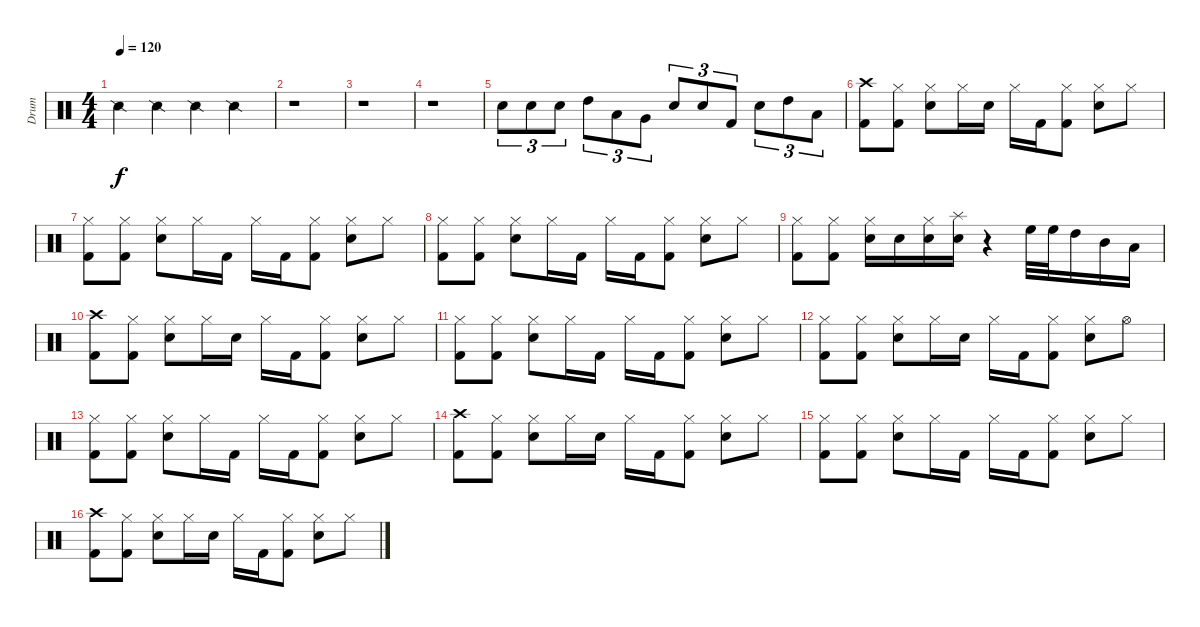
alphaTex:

\track ("Drum" "Drum") {instrument percussion}
\staff {score}
\articulation defaults
\ts (4 4)
\tempo 120
\clef neutral
\ks c "Snare (side stick) 2".4{dy f} "Snare (side stick) 2".4 "Snare (side stick) 2".4 "Snare (side stick) 2".4
|
r.1 |
r.1 |
r.1 |
"Electric Snare (hit)".8{tu (3 2)} "Electric Snare (hit)".8{tu (3 2)} "Electric Snare (hit)".8{tu (3 2)} "High Tom (hit)".8{tu (3 2)} "Low Tom (hit)".8{tu (3 2)} "Very Low Tom (hit)".8{tu (3 2)} "Electric Snare (hit)".8{tu (3 2)} "Electric Snare (hit)".8{tu (3 2)} "Kick (hit) 2".8{tu (3 2)} "Electric Snare (hit)".8{tu (3 2)} "High Tom (hit)".8{tu (3 2)} "Low Tom (hit)".8{tu (3 2)} |
("Crash high (hit)" "Kick (hit) 2").8 ("Hi-Hat (closed)" "Kick (hit) 2").8 ("Hi-Hat (closed)" "Metronome (bell)").8 "Hi-Hat (closed)".16 "Metronome (bell)".16 "Hi-Hat (closed)".16 "Kick (hit) 2".16 ("Hi-Hat (closed)" "Kick (hit) 2").8 ("Hi-Hat (closed)" "Metronome (bell)").8 "Hi-Hat (closed)".8 |
("Hi-Hat (closed)" "Kick (hit) 2").8 ("Hi-Hat (closed)" "Kick (hit) 2").8 ("Hi-Hat (closed)" "Metronome (bell)").8 "Hi-Hat (closed)".16 "Kick (hit) 2".16 "Hi-Hat (closed)".16 "Kick (hit) 2".16 ("Hi-Hat (closed)" "Kick (hit) 2").8 ("Hi-Hat (closed)" "Metronome (bell)").8 "Hi-Hat (closed)".8 |
("Hi-Hat (closed)" "Kick (hit) 2").8 ("Hi-Hat (closed)" "Kick (hit) 2").8 ("Hi-Hat (closed)" "Metronome (bell)").8 "Hi-Hat (closed)".16 "Kick (hit) 2".16 "Hi-Hat (closed)".16 "Kick (hit) 2".16 ("Hi-Hat (closed)" "Kick (hit) 2").8 ("Hi-Hat (closed)" "Metronome (bell)").8 "Hi-Hat (closed)".8 |
("Hi-Hat (closed)" "Kick (hit) 2").8 ("Hi-Hat (closed)" "Kick (hit) 2").8 ("Hi-Hat (closed)" "Metronome (bell)").16 "Metronome (bell)".16 ("Hi-Hat (closed)" "Metronome (bell)").16 ("Splash (hit)" "Metronome (bell)").16 r.4 "High Floor Tom (hit)".32 "High Floor Tom (hit)".32 "High Tom (hit)".16 "Mid Tom (hit)".16 "Low Tom (hit)".16 |
("Crash high (hit)" "Kick (hit) 2").8 ("Hi-Hat (closed)" "Kick (hit) 2").8 ("Hi-Hat (closed)" "Metronome (bell)").8 "Hi-Hat (closed)".16 "Metronome (bell)".16 "Hi-Hat (closed)".16 "Kick (hit) 2".16 ("Hi-Hat (closed)" "Kick (hit) 2").8 ("Hi-Hat (closed)" "Metronome (bell)").8 "Hi-Hat (closed)".8 |
("Hi-Hat (closed)" "Kick (hit) 2").8 ("Hi-Hat (closed)" "Kick (hit) 2").8 ("Hi-Hat (closed)" "Metronome (bell)").8 "Hi-Hat (closed)".16 "Kick (hit) 2".16 "Hi-Hat (closed)".16 "Kick (hit) 2".16 ("Hi-Hat (closed)" "Kick (hit) 2").8 ("Hi-Hat (closed)" "Metronome (bell)").8 "Hi-Hat (closed)".8 |
("Hi-Hat (closed)" "Kick (hit) 2").8 ("Hi-Hat (closed)" "Kick (hit) 2").8 ("Hi-Hat (closed)" "Metronome (bell)").8 "Hi-Hat (closed)".16 "Metronome (bell)".16 "Hi-Hat (closed)".16 "Kick (hit) 2".16 ("Hi-Hat (closed)" "Kick (hit) 2").8 ("Hi-Hat (closed)" "Metronome (bell)").8 "Hi-Hat (open)".8 |
("Hi-Hat (closed)" "Kick (hit) 2").8 ("Hi-Hat (closed)" "Kick (hit) 2").8 ("Hi-Hat (closed)" "Metronome (bell)").8 "Hi-Hat (closed)".16 "Kick (hit) 2".16 "Hi-Hat (closed)".16 "Kick (hit) 2".16 ("Hi-Hat (closed)" "Kick (hit) 2").8 ("Hi-Hat (closed)" "Metronome (bell)").8 "Hi-Hat (closed)".8 |
("Crash high (hit)" "Kick (hit) 2").8 ("Hi-Hat (closed)" "Kick (hit) 2").8 ("Hi-Hat (closed)" "Metronome (bell)").8 "Hi-Hat (closed)".16 "Metronome (bell)".16 "Hi-Hat (closed)".16 "Kick (hit) 2".16 ("Hi-Hat (closed)" "Kick (hit) 2").8 ("Hi-Hat (closed)" "Metronome (bell)").8 "Hi-Hat (closed)".8 |
("Hi-Hat (closed)" "Kick (hit) 2").8 ("Hi-Hat (closed)" "Kick (hit) 2").8 ("Hi-Hat (closed)" "Metronome (bell)").8 "Hi-Hat (closed)".16 "Kick (hit) 2".16 "Hi-Hat (closed)".16 "Kick (hit) 2".16 ("Hi-Hat (closed)" "Kick (hit) 2").8 ("Hi-Hat (closed)" "Metronome (bell)").8 "Hi-Hat (closed)".8 |
("Crash high (hit)" "Kick (hit) 2").8 ("Hi-Hat (closed)" "Kick (hit) 2").8 ("Hi-Hat (closed)" "Metronome (bell)").8 "Hi-Hat (closed)".16 "Metronome (bell)".16 "Hi-Hat (closed)".16 "Kick (hit) 2".16 ("Hi-Hat (closed)" "Kick (hit) 2").8 ("Hi-Hat (closed)" "Metronome (bell)").8 "Hi-Hat (closed)".8
